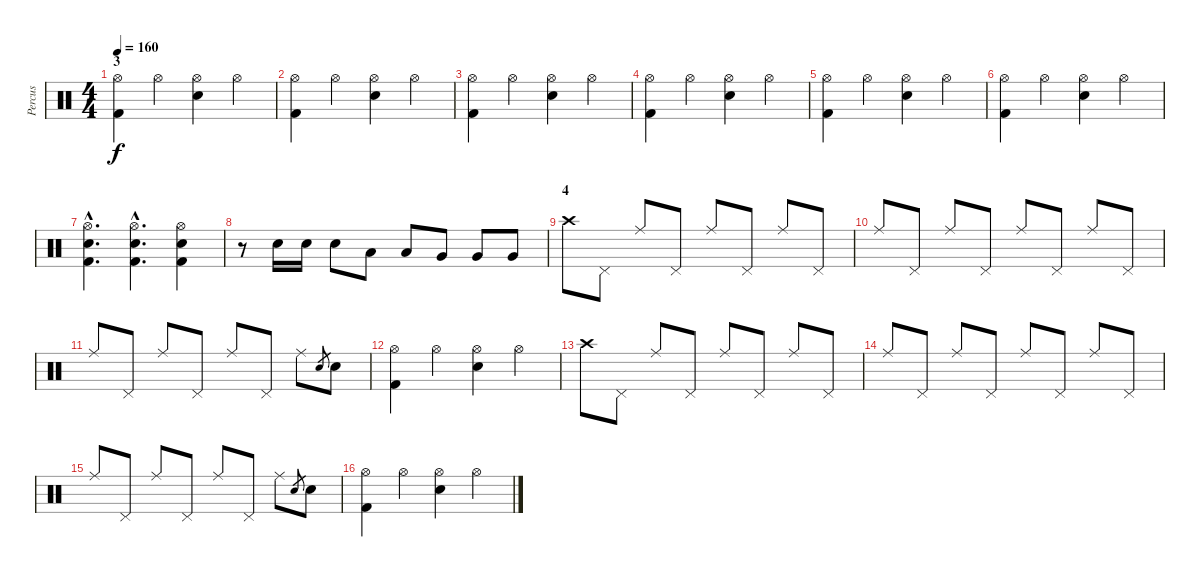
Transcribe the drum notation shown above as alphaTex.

\track ("Percus" "Percus") {instrument percussion}
\staff {score}
\articulation defaults
\ts (4 4)
\section ("" "3")
\tempo 160
\clef neutral
\ks c
("Hi-Hat (open)" "Kick (hit) 2").4{dy f} "Hi-Hat (open)".4 ("Hi-Hat (open)" "Electric Snare (hit)").4 "Hi-Hat (open)".4 |
("Hi-Hat (open)" "Kick (hit) 2").4 "Hi-Hat (open)".4 ("Hi-Hat (open)" "Electric Snare (hit)").4 "Hi-Hat (open)".4 |
("Hi-Hat (open)" "Kick (hit) 2").4 "Hi-Hat (open)".4 ("Hi-Hat (open)" "Electric Snare (hit)").4 "Hi-Hat (open)".4 |
("Hi-Hat (open)" "Kick (hit) 2").4 "Hi-Hat (open)".4 ("Hi-Hat (open)" "Electric Snare (hit)").4 "Hi-Hat (open)".4 |
("Hi-Hat (open)" "Kick (hit) 2").4 "Hi-Hat (open)".4 ("Hi-Hat (open)" "Electric Snare (hit)").4 "Hi-Hat (open)".4 |
("Hi-Hat (open)" "Kick (hit) 2").4 "Hi-Hat (open)".4 ("Hi-Hat (open)" "Electric Snare (hit)").4 "Hi-Hat (open)".4 |
("Hi-Hat (open)"{hac} "Electric Snare (hit)"{hac} "Kick (hit) 2"{hac}).4{d} ("Hi-Hat (open)"{hac} "Electric Snare (hit)"{hac} "Kick (hit) 2"{hac}).4{d} ("Hi-Hat (open)" "Electric Snare (hit)" "Kick (hit) 2").4 |
r.8 "Electric Snare (hit)".16 "Electric Snare (hit)".16 "Electric Snare (hit)".8 "Low Tom (hit)".8 "Low Tom (hit)".8 "Very Low Tom (hit)".8 "Very Low Tom (hit)".8 "Very Low Tom (hit)".8 |
\section ("" "4")
"Crash high (hit)".8 "Pedal Hi-Hat (hit)".8 "Ride (middle)".8 "Pedal Hi-Hat (hit)".8 "Ride (middle)".8 "Pedal Hi-Hat (hit)".8 "Ride (middle)".8 "Pedal Hi-Hat (hit)".8 |
"Ride (middle)".8 "Pedal Hi-Hat (hit)".8 "Ride (middle)".8 "Pedal Hi-Hat (hit)".8 "Ride (middle)".8 "Pedal Hi-Hat (hit)".8 "Ride (middle)".8 "Pedal Hi-Hat (hit)".8 |
"Ride (middle)".8 "Pedal Hi-Hat (hit)".8 "Ride (middle)".8 "Pedal Hi-Hat (hit)".8 "Ride (middle)".8 "Pedal Hi-Hat (hit)".8 "Ride (middle)".8 "Electric Snare (hit)".8{gr} "Electric Snare (hit)".8 |
("Hi-Hat (open)" "Kick (hit) 2").4 "Hi-Hat (open)".4 ("Hi-Hat (open)" "Electric Snare (hit)").4 "Hi-Hat (open)".4 |
"Crash high (hit)".8 "Pedal Hi-Hat (hit)".8 "Ride (middle)".8 "Pedal Hi-Hat (hit)".8 "Ride (middle)".8 "Pedal Hi-Hat (hit)".8 "Ride (middle)".8 "Pedal Hi-Hat (hit)".8 |
"Ride (middle)".8 "Pedal Hi-Hat (hit)".8 "Ride (middle)".8 "Pedal Hi-Hat (hit)".8 "Ride (middle)".8 "Pedal Hi-Hat (hit)".8 "Ride (middle)".8 "Pedal Hi-Hat (hit)".8 |
"Ride (middle)".8 "Pedal Hi-Hat (hit)".8 "Ride (middle)".8 "Pedal Hi-Hat (hit)".8 "Ride (middle)".8 "Pedal Hi-Hat (hit)".8 "Ride (middle)".8 "Electric Snare (hit)".8{gr} "Electric Snare (hit)".8 |
("Hi-Hat (open)" "Kick (hit) 2").4 "Hi-Hat (open)".4 ("Hi-Hat (open)" "Electric Snare (hit)").4 "Hi-Hat (open)".4
